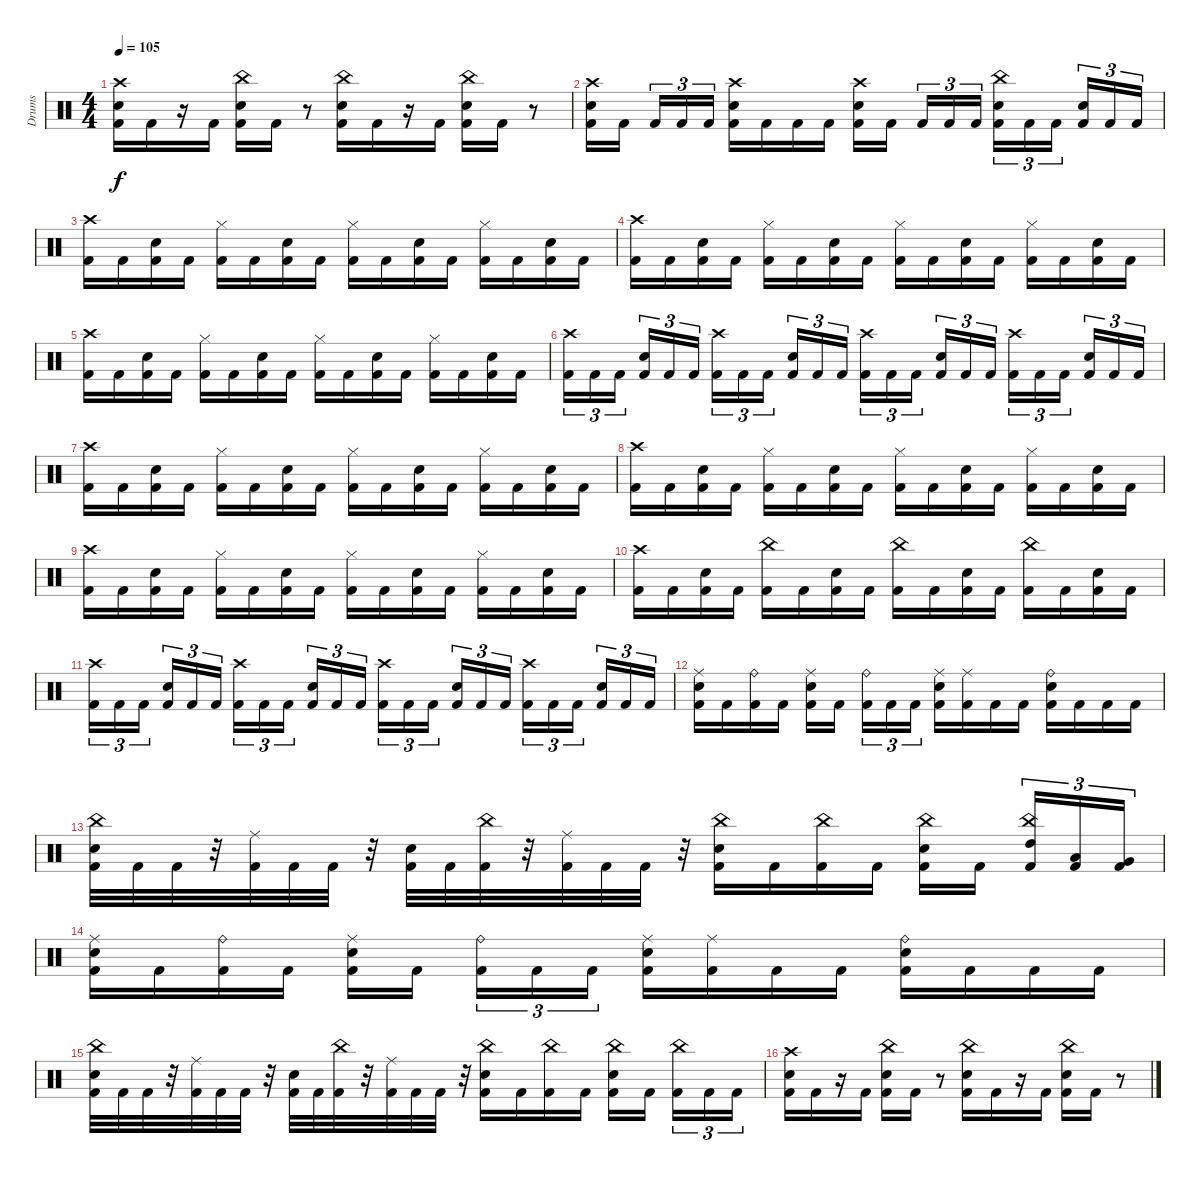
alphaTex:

\track ("Drums" "Drums") {instrument percussion}
\staff {score}
\articulation defaults
\ts (4 4)
\tempo 105
\clef neutral
\ks c
("Crash high (hit)" "Snare (hit) 2" "Kick (hit) 2").16{dy f} "Kick (hit) 2".16 r.16 "Kick (hit) 2".16 ("China (hit)" "Snare (hit) 2" "Kick (hit) 2").16 "Kick (hit) 2".16 r.8 ("China (hit)" "Snare (hit) 2" "Kick (hit) 2").16 "Kick (hit) 2".16 r.16 "Kick (hit) 2".16 ("China (hit)" "Snare (hit) 2" "Kick (hit) 2").16 "Kick (hit) 2".16 r.8 |
("Crash high (hit)" "Snare (hit) 2" "Kick (hit) 2").16 "Kick (hit) 2".16{beam splitsecondary} "Kick (hit) 2".16{tu (3 2)} "Kick (hit) 2".16{tu (3 2)} "Kick (hit) 2".16{tu (3 2)} ("Crash high (hit)" "Snare (hit) 2" "Kick (hit) 2").16 "Kick (hit) 2".16 "Kick (hit) 2".16 "Kick (hit) 2".16 ("Crash high (hit)" "Snare (hit) 2" "Kick (hit) 2").16 "Kick (hit) 2".16{beam splitsecondary} "Kick (hit) 2".16{tu (3 2)} "Kick (hit) 2".16{tu (3 2)} "Kick (hit) 2".16{tu (3 2)} ("China (hit)" "Snare (hit) 2" "Kick (hit) 2").16{tu (3 2)} "Kick (hit) 2".16{tu (3 2)} "Kick (hit) 2".16{tu (3 2) beam splitsecondary} ("Snare (hit) 2" "Kick (hit) 2").16{tu (3 2)} "Kick (hit) 2".16{tu (3 2)} "Kick (hit) 2".16{tu (3 2)} |
("Crash high (hit)" "Kick (hit) 2").16 "Kick (hit) 2".16 ("Snare (hit) 2" "Kick (hit) 2").16 "Kick (hit) 2".16 ("Hi-Hat (closed)" "Kick (hit) 2").16 "Kick (hit) 2".16 ("Snare (hit) 2" "Kick (hit) 2").16 "Kick (hit) 2".16 ("Hi-Hat (closed)" "Kick (hit) 2").16 "Kick (hit) 2".16 ("Snare (hit) 2" "Kick (hit) 2").16 "Kick (hit) 2".16 ("Hi-Hat (closed)" "Kick (hit) 2").16 "Kick (hit) 2".16 ("Snare (hit) 2" "Kick (hit) 2").16 "Kick (hit) 2".16 |
("Crash high (hit)" "Kick (hit) 2").16 "Kick (hit) 2".16 ("Snare (hit) 2" "Kick (hit) 2").16 "Kick (hit) 2".16 ("Hi-Hat (closed)" "Kick (hit) 2").16 "Kick (hit) 2".16 ("Snare (hit) 2" "Kick (hit) 2").16 "Kick (hit) 2".16 ("Hi-Hat (closed)" "Kick (hit) 2").16 "Kick (hit) 2".16 ("Snare (hit) 2" "Kick (hit) 2").16 "Kick (hit) 2".16 ("Hi-Hat (closed)" "Kick (hit) 2").16 "Kick (hit) 2".16 ("Snare (hit) 2" "Kick (hit) 2").16 "Kick (hit) 2".16 |
("Crash high (hit)" "Kick (hit) 2").16 "Kick (hit) 2".16 ("Snare (hit) 2" "Kick (hit) 2").16 "Kick (hit) 2".16 ("Hi-Hat (closed)" "Kick (hit) 2").16 "Kick (hit) 2".16 ("Snare (hit) 2" "Kick (hit) 2").16 "Kick (hit) 2".16 ("Hi-Hat (closed)" "Kick (hit) 2").16 "Kick (hit) 2".16 ("Snare (hit) 2" "Kick (hit) 2").16 "Kick (hit) 2".16 ("Hi-Hat (closed)" "Kick (hit) 2").16 "Kick (hit) 2".16 ("Snare (hit) 2" "Kick (hit) 2").16 "Kick (hit) 2".16 |
("Crash high (hit)" "Kick (hit) 2").16{tu (3 2)} "Kick (hit) 2".16{tu (3 2)} "Kick (hit) 2".16{tu (3 2) beam splitsecondary} ("Snare (hit) 2" "Kick (hit) 2").16{tu (3 2)} "Kick (hit) 2".16{tu (3 2)} "Kick (hit) 2".16{tu (3 2)} ("Crash high (hit)" "Kick (hit) 2").16{tu (3 2)} "Kick (hit) 2".16{tu (3 2)} "Kick (hit) 2".16{tu (3 2) beam splitsecondary} ("Snare (hit) 2" "Kick (hit) 2").16{tu (3 2)} "Kick (hit) 2".16{tu (3 2)} "Kick (hit) 2".16{tu (3 2)} ("Crash high (hit)" "Kick (hit) 2").16{tu (3 2)} "Kick (hit) 2".16{tu (3 2)} "Kick (hit) 2".16{tu (3 2) beam splitsecondary} ("Snare (hit) 2" "Kick (hit) 2").16{tu (3 2)} "Kick (hit) 2".16{tu (3 2)} "Kick (hit) 2".16{tu (3 2)} ("Crash high (hit)" "Kick (hit) 2").16{tu (3 2)} "Kick (hit) 2".16{tu (3 2)} "Kick (hit) 2".16{tu (3 2) beam splitsecondary} ("Snare (hit) 2" "Kick (hit) 2").16{tu (3 2)} "Kick (hit) 2".16{tu (3 2)} "Kick (hit) 2".16{tu (3 2)} |
("Crash high (hit)" "Kick (hit) 2").16 "Kick (hit) 2".16 ("Snare (hit) 2" "Kick (hit) 2").16 "Kick (hit) 2".16 ("Hi-Hat (closed)" "Kick (hit) 2").16 "Kick (hit) 2".16 ("Snare (hit) 2" "Kick (hit) 2").16 "Kick (hit) 2".16 ("Hi-Hat (closed)" "Kick (hit) 2").16 "Kick (hit) 2".16 ("Snare (hit) 2" "Kick (hit) 2").16 "Kick (hit) 2".16 ("Hi-Hat (closed)" "Kick (hit) 2").16 "Kick (hit) 2".16 ("Snare (hit) 2" "Kick (hit) 2").16 "Kick (hit) 2".16 |
("Crash high (hit)" "Kick (hit) 2").16 "Kick (hit) 2".16 ("Snare (hit) 2" "Kick (hit) 2").16 "Kick (hit) 2".16 ("Hi-Hat (closed)" "Kick (hit) 2").16 "Kick (hit) 2".16 ("Snare (hit) 2" "Kick (hit) 2").16 "Kick (hit) 2".16 ("Hi-Hat (closed)" "Kick (hit) 2").16 "Kick (hit) 2".16 ("Snare (hit) 2" "Kick (hit) 2").16 "Kick (hit) 2".16 ("Hi-Hat (closed)" "Kick (hit) 2").16 "Kick (hit) 2".16 ("Snare (hit) 2" "Kick (hit) 2").16 "Kick (hit) 2".16 |
("Crash high (hit)" "Kick (hit) 2").16 "Kick (hit) 2".16 ("Snare (hit) 2" "Kick (hit) 2").16 "Kick (hit) 2".16 ("Hi-Hat (closed)" "Kick (hit) 2").16 "Kick (hit) 2".16 ("Snare (hit) 2" "Kick (hit) 2").16 "Kick (hit) 2".16 ("Hi-Hat (closed)" "Kick (hit) 2").16 "Kick (hit) 2".16 ("Snare (hit) 2" "Kick (hit) 2").16 "Kick (hit) 2".16 ("Hi-Hat (closed)" "Kick (hit) 2").16 "Kick (hit) 2".16 ("Snare (hit) 2" "Kick (hit) 2").16 "Kick (hit) 2".16 |
("Crash high (hit)" "Kick (hit) 2").16 "Kick (hit) 2".16 ("Snare (hit) 2" "Kick (hit) 2").16 "Kick (hit) 2".16 ("China (hit)" "Kick (hit) 2").16 "Kick (hit) 2".16 ("Snare (hit) 2" "Kick (hit) 2").16 "Kick (hit) 2".16 ("China (hit)" "Kick (hit) 2").16 "Kick (hit) 2".16 ("Snare (hit) 2" "Kick (hit) 2").16 "Kick (hit) 2".16 ("China (hit)" "Kick (hit) 2").16 "Kick (hit) 2".16 ("Snare (hit) 2" "Kick (hit) 2").16 "Kick (hit) 2".16 |
("Crash high (hit)" "Kick (hit) 2").16{tu (3 2)} "Kick (hit) 2".16{tu (3 2)} "Kick (hit) 2".16{tu (3 2) beam splitsecondary} ("Snare (hit) 2" "Kick (hit) 2").16{tu (3 2)} "Kick (hit) 2".16{tu (3 2)} "Kick (hit) 2".16{tu (3 2)} ("Crash high (hit)" "Kick (hit) 2").16{tu (3 2)} "Kick (hit) 2".16{tu (3 2)} "Kick (hit) 2".16{tu (3 2) beam splitsecondary} ("Snare (hit) 2" "Kick (hit) 2").16{tu (3 2)} "Kick (hit) 2".16{tu (3 2)} "Kick (hit) 2".16{tu (3 2)} ("Crash high (hit)" "Kick (hit) 2").16{tu (3 2)} "Kick (hit) 2".16{tu (3 2)} "Kick (hit) 2".16{tu (3 2) beam splitsecondary} ("Snare (hit) 2" "Kick (hit) 2").16{tu (3 2)} "Kick (hit) 2".16{tu (3 2)} "Kick (hit) 2".16{tu (3 2)} ("Crash high (hit)" "Kick (hit) 2").16{tu (3 2)} "Kick (hit) 2".16{tu (3 2)} "Kick (hit) 2".16{tu (3 2) beam splitsecondary} ("Snare (hit) 2" "Kick (hit) 2").16{tu (3 2)} "Kick (hit) 2".16{tu (3 2)} "Kick (hit) 2".16{tu (3 2)} |
("Ride (middle)" "Snare (hit) 2" "Kick (hit) 2").16 "Kick (hit) 2".16 ("Ride (bell)" "Kick (hit) 2").16 "Kick (hit) 2".16 ("Ride (middle)" "Snare (hit) 2" "Kick (hit) 2").16 "Kick (hit) 2".16{beam splitsecondary} ("Ride (bell)" "Kick (hit) 2").16{tu (3 2)} "Kick (hit) 2".16{tu (3 2)} "Kick (hit) 2".16{tu (3 2)} ("Ride (middle)" "Snare (hit) 2" "Kick (hit) 2").16 ("Ride (middle)" "Kick (hit) 2").16 "Kick (hit) 2".16 "Kick (hit) 2".16 ("Ride (bell)" "Snare (hit) 2" "Kick (hit) 2").16 "Kick (hit) 2".16 "Kick (hit) 2".16 "Kick (hit) 2".16 |
("China (hit)" "Snare (hit) 2" "Kick (hit) 2").32 "Kick (hit) 2".32 "Kick (hit) 2".32 r.32 ("Ride (middle)" "Kick (hit) 2").32 "Kick (hit) 2".32 "Kick (hit) 2".32 r.32 ("Snare (hit) 2" "Kick (hit) 2").32 "Kick (hit) 2".32 ("China (hit)" "Kick (hit) 2").32 r.32 ("Ride (middle)" "Kick (hit) 2").32 "Kick (hit) 2".32 "Kick (hit) 2".32 r.32 ("China (hit)" "Snare (hit) 2" "Kick (hit) 2").16 "Kick (hit) 2".16 ("China (hit)" "Kick (hit) 2").16 "Kick (hit) 2".16 ("China (hit)" "Snare (hit) 2" "Kick (hit) 2").16 "Kick (hit) 2".16{beam splitsecondary} ("China (hit)" "High Tom (hit)" "Kick (hit) 2").16{tu (3 2)} ("Low Tom (hit)" "Kick (hit) 2").16{tu (3 2)} ("Very Low Tom (hit)" "Kick (hit) 2").16{tu (3 2)} |
("Ride (middle)" "Snare (hit) 2" "Kick (hit) 2").16 "Kick (hit) 2".16 ("Ride (bell)" "Kick (hit) 2").16 "Kick (hit) 2".16 ("Ride (middle)" "Snare (hit) 2" "Kick (hit) 2").16 "Kick (hit) 2".16{beam splitsecondary} ("Ride (bell)" "Kick (hit) 2").16{tu (3 2)} "Kick (hit) 2".16{tu (3 2)} "Kick (hit) 2".16{tu (3 2)} ("Ride (middle)" "Snare (hit) 2" "Kick (hit) 2").16 ("Ride (middle)" "Kick (hit) 2").16 "Kick (hit) 2".16 "Kick (hit) 2".16 ("Ride (bell)" "Snare (hit) 2" "Kick (hit) 2").16 "Kick (hit) 2".16 "Kick (hit) 2".16 "Kick (hit) 2".16 |
("China (hit)" "Snare (hit) 2" "Kick (hit) 2").32 "Kick (hit) 2".32 "Kick (hit) 2".32 r.32 ("Ride (middle)" "Kick (hit) 2").32 "Kick (hit) 2".32 "Kick (hit) 2".32 r.32 ("Snare (hit) 2" "Kick (hit) 2").32 "Kick (hit) 2".32 ("China (hit)" "Kick (hit) 2").32 r.32 ("Ride (middle)" "Kick (hit) 2").32 "Kick (hit) 2".32 "Kick (hit) 2".32 r.32 ("China (hit)" "Snare (hit) 2" "Kick (hit) 2").16 "Kick (hit) 2".16 ("China (hit)" "Kick (hit) 2").16 "Kick (hit) 2".16 ("China (hit)" "Snare (hit) 2" "Kick (hit) 2").16 "Kick (hit) 2".16{beam splitsecondary} ("China (hit)" "Kick (hit) 2").16{tu (3 2)} "Kick (hit) 2".16{tu (3 2)} "Kick (hit) 2".16{tu (3 2)} |
("Crash high (hit)" "Snare (hit) 2" "Kick (hit) 2").16 "Kick (hit) 2".16 r.16 "Kick (hit) 2".16 ("China (hit)" "Snare (hit) 2" "Kick (hit) 2").16 "Kick (hit) 2".16 r.8 ("China (hit)" "Snare (hit) 2" "Kick (hit) 2").16 "Kick (hit) 2".16 r.16 "Kick (hit) 2".16 ("China (hit)" "Snare (hit) 2" "Kick (hit) 2").16 "Kick (hit) 2".16 r.8
